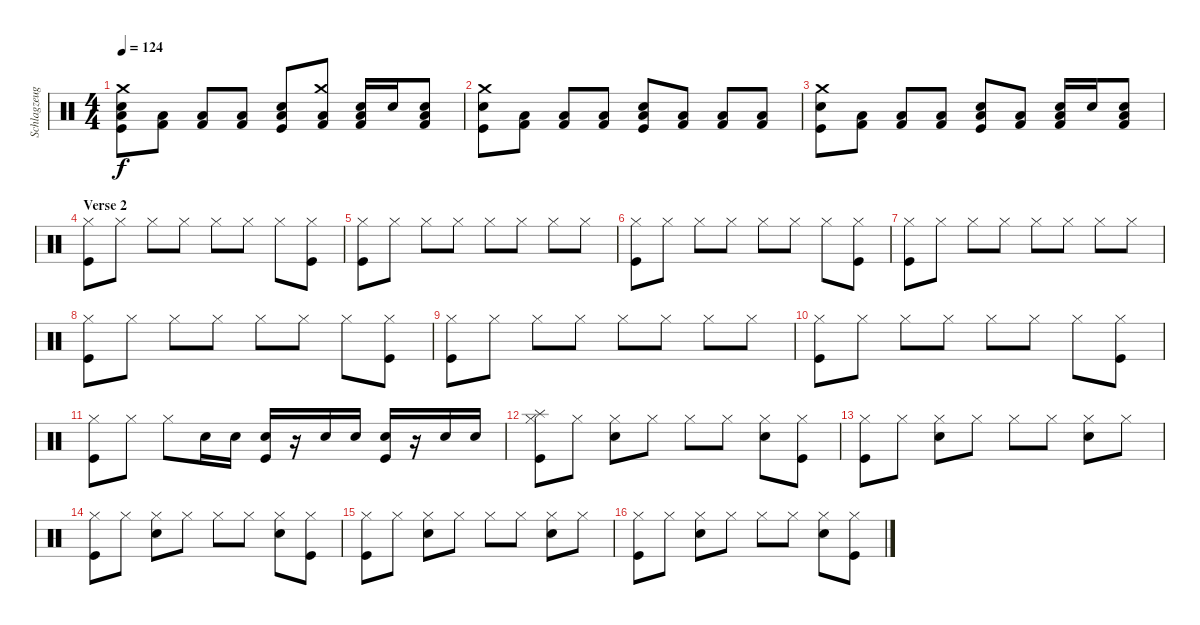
\track ("Schlagzeug - Bela B." "Schlagzeug") {instrument percussion}
\staff {score}
\articulation defaults
\ts (4 4)
\tempo 124
\clef neutral
\ks c
("Low Floor Tom (hit)" "Kick (hit)" "Snare (hit) 2" "Crash medium (hit)").8{dy f} ("Low Floor Tom (hit)" "Kick (hit) 2").8 ("Low Floor Tom (hit)" "Kick (hit) 2").8 ("Low Floor Tom (hit)" "Kick (hit) 2").8 ("Low Floor Tom (hit)" "Kick (hit)" "Snare (hit) 2").8 ("Low Floor Tom (hit)" "Kick (hit) 2" "Crash medium (hit)").8 ("Low Floor Tom (hit)" "Kick (hit) 2" "Snare (hit) 2").16 "Snare (hit) 2".16 ("Low Floor Tom (hit)" "Kick (hit) 2" "Snare (hit) 2").8 |
("Kick (hit)" "Snare (hit) 2" "Crash medium (hit)").8 ("Low Floor Tom (hit)" "Kick (hit) 2").8 ("Low Floor Tom (hit)" "Kick (hit) 2").8 ("Low Floor Tom (hit)" "Kick (hit) 2").8 ("Low Floor Tom (hit)" "Kick (hit)" "Snare (hit) 2").8 ("Low Floor Tom (hit)" "Kick (hit) 2").8 ("Low Floor Tom (hit)" "Kick (hit) 2").8 ("Low Floor Tom (hit)" "Kick (hit) 2").8 |
("Kick (hit)" "Snare (hit) 2" "Crash medium (hit)").8 ("Low Floor Tom (hit)" "Kick (hit) 2").8 ("Low Floor Tom (hit)" "Kick (hit) 2").8 ("Low Floor Tom (hit)" "Kick (hit) 2").8 ("Low Floor Tom (hit)" "Kick (hit)" "Snare (hit) 2").8 ("Low Floor Tom (hit)" "Kick (hit) 2").8 ("Low Floor Tom (hit)" "Kick (hit) 2" "Snare (hit) 2").16 "Snare (hit) 2".16 ("Low Floor Tom (hit)" "Kick (hit) 2" "Snare (hit) 2").8 |
\section ("" "Verse 2")
("Kick (hit)" "Hi-Hat (closed)").8 "Hi-Hat (closed)".8 "Hi-Hat (closed)".8 "Hi-Hat (closed)".8 "Hi-Hat (closed)".8 "Hi-Hat (closed)".8 "Hi-Hat (closed)".8 ("Hi-Hat (closed)" "Kick (hit)").8 |
("Kick (hit)" "Hi-Hat (closed)").8 "Hi-Hat (closed)".8 "Hi-Hat (closed)".8 "Hi-Hat (closed)".8 "Hi-Hat (closed)".8 "Hi-Hat (closed)".8 "Hi-Hat (closed)".8 "Hi-Hat (closed)".8 |
("Kick (hit)" "Hi-Hat (closed)").8 "Hi-Hat (closed)".8 "Hi-Hat (closed)".8 "Hi-Hat (closed)".8 "Hi-Hat (closed)".8 "Hi-Hat (closed)".8 "Hi-Hat (closed)".8 ("Hi-Hat (closed)" "Kick (hit)").8 |
("Kick (hit)" "Hi-Hat (closed)").8 "Hi-Hat (closed)".8 "Hi-Hat (closed)".8 "Hi-Hat (closed)".8 "Hi-Hat (closed)".8 "Hi-Hat (closed)".8 "Hi-Hat (closed)".8 "Hi-Hat (closed)".8 |
("Kick (hit)" "Hi-Hat (closed)").8 "Hi-Hat (closed)".8 "Hi-Hat (closed)".8 "Hi-Hat (closed)".8 "Hi-Hat (closed)".8 "Hi-Hat (closed)".8 "Hi-Hat (closed)".8 ("Hi-Hat (closed)" "Kick (hit)").8 |
("Kick (hit)" "Hi-Hat (closed)").8 "Hi-Hat (closed)".8 "Hi-Hat (closed)".8 "Hi-Hat (closed)".8 "Hi-Hat (closed)".8 "Hi-Hat (closed)".8 "Hi-Hat (closed)".8 "Hi-Hat (closed)".8 |
("Kick (hit)" "Hi-Hat (closed)").8 "Hi-Hat (closed)".8 "Hi-Hat (closed)".8 "Hi-Hat (closed)".8 "Hi-Hat (closed)".8 "Hi-Hat (closed)".8 "Hi-Hat (closed)".8 ("Hi-Hat (closed)" "Kick (hit)").8 |
("Kick (hit)" "Hi-Hat (closed)").8 "Hi-Hat (closed)".8 "Hi-Hat (closed)".8 "Snare (hit) 2".16 "Snare (hit) 2".16 ("Snare (hit) 2" "Kick (hit)").16 r.16 "Snare (hit) 2".16 "Snare (hit) 2".16 ("Snare (hit) 2" "Kick (hit)").16 r.16 "Snare (hit) 2".16 "Snare (hit) 2".16 |
("Kick (hit)" "Hi-Hat (closed)" "Splash (hit)").8 "Hi-Hat (closed)".8 ("Hi-Hat (closed)" "Snare (hit) 2").8 "Hi-Hat (closed)".8 "Hi-Hat (closed)".8 "Hi-Hat (closed)".8 ("Hi-Hat (closed)" "Snare (hit) 2").8 ("Hi-Hat (closed)" "Kick (hit)").8 |
("Kick (hit)" "Hi-Hat (closed)").8 "Hi-Hat (closed)".8 ("Hi-Hat (closed)" "Snare (hit) 2").8 "Hi-Hat (closed)".8 "Hi-Hat (closed)".8 "Hi-Hat (closed)".8 ("Hi-Hat (closed)" "Snare (hit) 2").8 "Hi-Hat (closed)".8 |
("Kick (hit)" "Hi-Hat (closed)").8 "Hi-Hat (closed)".8 ("Hi-Hat (closed)" "Snare (hit) 2").8 "Hi-Hat (closed)".8 "Hi-Hat (closed)".8 "Hi-Hat (closed)".8 ("Hi-Hat (closed)" "Snare (hit) 2").8 ("Hi-Hat (closed)" "Kick (hit)").8 |
("Kick (hit)" "Hi-Hat (closed)").8 "Hi-Hat (closed)".8 ("Hi-Hat (closed)" "Snare (hit) 2").8 "Hi-Hat (closed)".8 "Hi-Hat (closed)".8 "Hi-Hat (closed)".8 ("Hi-Hat (closed)" "Snare (hit) 2").8 "Hi-Hat (closed)".8 |
("Kick (hit)" "Hi-Hat (closed)").8 "Hi-Hat (closed)".8 ("Hi-Hat (closed)" "Snare (hit) 2").8 "Hi-Hat (closed)".8 "Hi-Hat (closed)".8 "Hi-Hat (closed)".8 ("Hi-Hat (closed)" "Snare (hit) 2").8 ("Hi-Hat (closed)" "Kick (hit)").8
